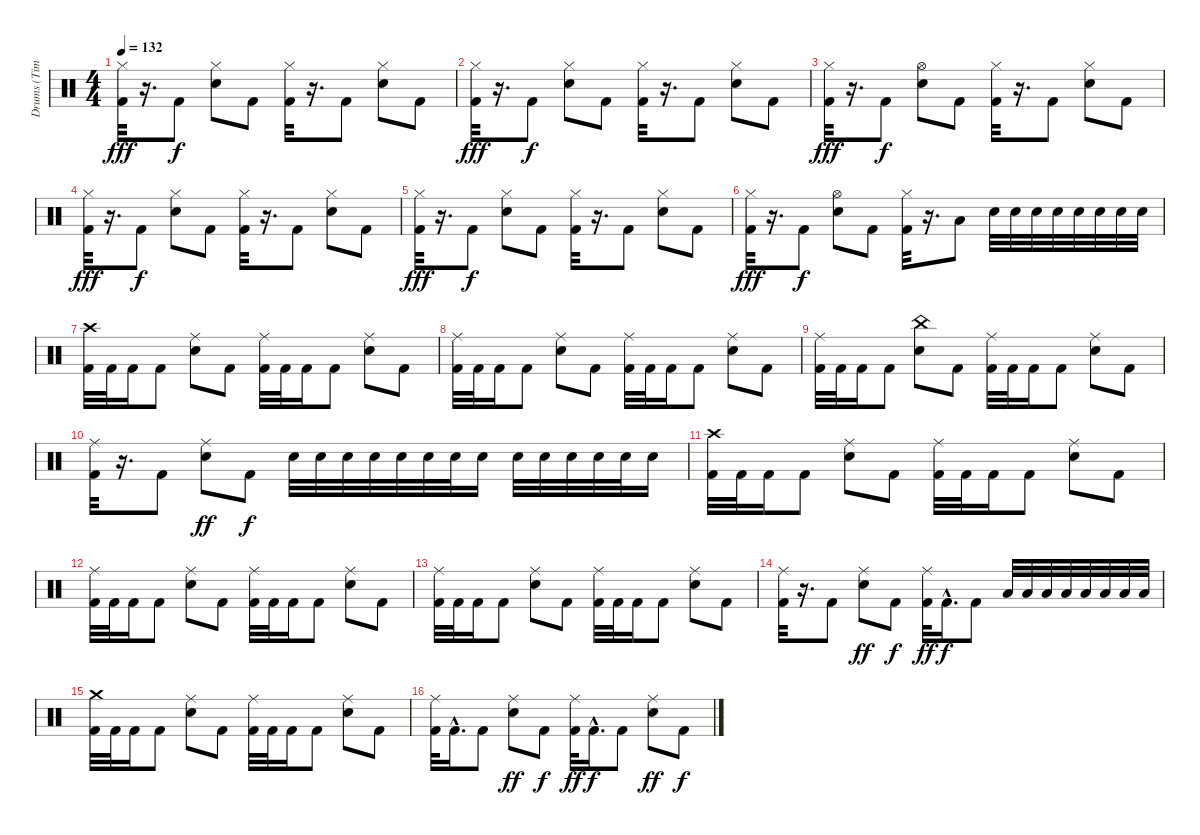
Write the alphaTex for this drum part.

\track ("Drums (Tim Alexander)" "Drums (Tim") {instrument percussion}
\staff {score}
\articulation defaults
\ts (4 4)
\tempo 132
\clef neutral
\ks c
("Hi-Hat (closed)" "Kick (hit) 2").32{dy fff} r.16{d} "Kick (hit) 2".8{dy f} ("Hi-Hat (closed)" "Snare (hit) 2").8 "Kick (hit) 2".8 ("Hi-Hat (closed)" "Kick (hit) 2").32 r.16{d} "Kick (hit) 2".8 ("Hi-Hat (closed)" "Snare (hit) 2").8 "Kick (hit) 2".8 |
("Hi-Hat (closed)" "Kick (hit) 2").32{dy fff} r.16{d} "Kick (hit) 2".8{dy f} ("Hi-Hat (closed)" "Snare (hit) 2").8 "Kick (hit) 2".8 ("Hi-Hat (closed)" "Kick (hit) 2").32 r.16{d} "Kick (hit) 2".8 ("Hi-Hat (closed)" "Snare (hit) 2").8 "Kick (hit) 2".8 |
("Hi-Hat (closed)" "Kick (hit) 2").32{dy fff} r.16{d} "Kick (hit) 2".8{dy f} ("Hi-Hat (open)" "Snare (hit) 2").8 "Kick (hit) 2".8 ("Hi-Hat (closed)" "Kick (hit) 2").32 r.16{d} "Kick (hit) 2".8 ("Hi-Hat (closed)" "Snare (hit) 2").8 "Kick (hit) 2".8 |
("Hi-Hat (closed)" "Kick (hit) 2").32{dy fff} r.16{d} "Kick (hit) 2".8{dy f} ("Hi-Hat (closed)" "Snare (hit) 2").8 "Kick (hit) 2".8 ("Hi-Hat (closed)" "Kick (hit) 2").32 r.16{d} "Kick (hit) 2".8 ("Hi-Hat (closed)" "Snare (hit) 2").8 "Kick (hit) 2".8 |
("Hi-Hat (closed)" "Kick (hit) 2").32{dy fff} r.16{d} "Kick (hit) 2".8{dy f} ("Hi-Hat (closed)" "Snare (hit) 2").8 "Kick (hit) 2".8 ("Hi-Hat (closed)" "Kick (hit) 2").32 r.16{d} "Kick (hit) 2".8 ("Hi-Hat (closed)" "Snare (hit) 2").8 "Kick (hit) 2".8 |
("Hi-Hat (closed)" "Kick (hit) 2").32{dy fff} r.16{d} "Kick (hit) 2".8{dy f} ("Hi-Hat (open)" "Snare (hit) 2").8 "Kick (hit) 2".8 ("Hi-Hat (closed)" "Kick (hit) 2").32 r.16{d} "Low Tom (hit)".8 "Snare (hit) 2".32 "Snare (hit) 2".32 "Snare (hit) 2".32 "Snare (hit) 2".32 "Snare (hit) 2".32 "Snare (hit) 2".32 "Snare (hit) 2".32 "Snare (hit) 2".32 |
("Crash high (hit)" "Kick (hit) 2").32 "Kick (hit) 2".32 "Kick (hit) 2".16 "Kick (hit) 2".8 ("Ride (middle)" "Snare (hit) 2").8 "Kick (hit) 2".8 ("Ride (middle)" "Kick (hit) 2").32 "Kick (hit) 2".32 "Kick (hit) 2".16 "Kick (hit) 2".8 ("Ride (middle)" "Snare (hit) 2").8 "Kick (hit) 2".8 |
("Ride (middle)" "Kick (hit) 2").32 "Kick (hit) 2".32 "Kick (hit) 2".16 "Kick (hit) 2".8 ("Ride (middle)" "Snare (hit) 2").8 "Kick (hit) 2".8 ("Ride (middle)" "Kick (hit) 2").32 "Kick (hit) 2".32 "Kick (hit) 2".16 "Kick (hit) 2".8 ("Ride (middle)" "Snare (hit) 2").8 "Kick (hit) 2".8 |
("Ride (middle)" "Kick (hit) 2").32 "Kick (hit) 2".32 "Kick (hit) 2".16 "Kick (hit) 2".8 ("China (hit)" "Snare (hit) 2").8 "Kick (hit) 2".8 ("Ride (middle)" "Kick (hit) 2").32 "Kick (hit) 2".32 "Kick (hit) 2".16 "Kick (hit) 2".8 ("Ride (middle)" "Snare (hit) 2").8 "Kick (hit) 2".8 |
("Ride (middle)" "Kick (hit) 2").32 r.16{d} "Kick (hit) 2".8 ("Ride (middle)" "Snare (hit) 2").8{dy ff} "Kick (hit) 2".8{dy f} "Snare (hit) 2".32 "Snare (hit) 2".32 "Snare (hit) 2".32 "Snare (hit) 2".32 "Snare (hit) 2".32 "Snare (hit) 2".32 "Snare (hit) 2".32 "Snare (hit) 2".16 "Snare (hit) 2".32 "Snare (hit) 2".32 "Snare (hit) 2".32 "Snare (hit) 2".32 "Snare (hit) 2".32 "Snare (hit) 2".16 |
("Crash high (hit)" "Kick (hit) 2").32 "Kick (hit) 2".32 "Kick (hit) 2".16 "Kick (hit) 2".8 ("Ride (middle)" "Snare (hit) 2").8 "Kick (hit) 2".8 ("Ride (middle)" "Kick (hit) 2").32 "Kick (hit) 2".32 "Kick (hit) 2".16 "Kick (hit) 2".8 ("Ride (middle)" "Snare (hit) 2").8 "Kick (hit) 2".8 |
("Ride (middle)" "Kick (hit) 2").32 "Kick (hit) 2".32 "Kick (hit) 2".16 "Kick (hit) 2".8 ("Ride (middle)" "Snare (hit) 2").8 "Kick (hit) 2".8 ("Ride (middle)" "Kick (hit) 2").32 "Kick (hit) 2".32 "Kick (hit) 2".16 "Kick (hit) 2".8 ("Ride (middle)" "Snare (hit) 2").8 "Kick (hit) 2".8 |
("Ride (middle)" "Kick (hit) 2").32 "Kick (hit) 2".32 "Kick (hit) 2".16 "Kick (hit) 2".8 ("Ride (middle)" "Snare (hit) 2").8 "Kick (hit) 2".8 ("Ride (middle)" "Kick (hit) 2").32 "Kick (hit) 2".32 "Kick (hit) 2".16 "Kick (hit) 2".8 ("Ride (middle)" "Snare (hit) 2").8 "Kick (hit) 2".8 |
("Ride (middle)" "Kick (hit) 2").32 r.16{d} "Kick (hit) 2".8 ("Ride (middle)" "Snare (hit) 2").8{dy ff} "Kick (hit) 2".8{dy f} ("Ride (middle)" "Kick (hit) 2").32{dy ff} "Kick (hit) 2"{hac}.16{d dy f} "Kick (hit) 2".8 "Low Tom (hit)".32 "Low Tom (hit)".32 "Low Tom (hit)".32 "Low Tom (hit)".32 "Low Tom (hit)".32 "Low Tom (hit)".32 "Low Tom (hit)".32 "Low Tom (hit)".32 |
("Crash medium (hit)" "Kick (hit) 2").32 "Kick (hit) 2".32 "Kick (hit) 2".16 "Kick (hit) 2".8 ("Ride (middle)" "Snare (hit) 2").8 "Kick (hit) 2".8 ("Ride (middle)" "Kick (hit) 2").32 "Kick (hit) 2".32 "Kick (hit) 2".16 "Kick (hit) 2".8 ("Ride (middle)" "Snare (hit) 2").8 "Kick (hit) 2".8 |
("Ride (middle)" "Kick (hit) 2").32 "Kick (hit) 2"{hac}.16{d} "Kick (hit) 2".8 ("Ride (middle)" "Snare (hit) 2").8{dy ff} "Kick (hit) 2".8{dy f} ("Ride (middle)" "Kick (hit) 2").32{dy ff} "Kick (hit) 2"{hac}.16{d dy f} "Kick (hit) 2".8 ("Ride (middle)" "Snare (hit) 2").8{dy ff} "Kick (hit) 2".8{dy f}
